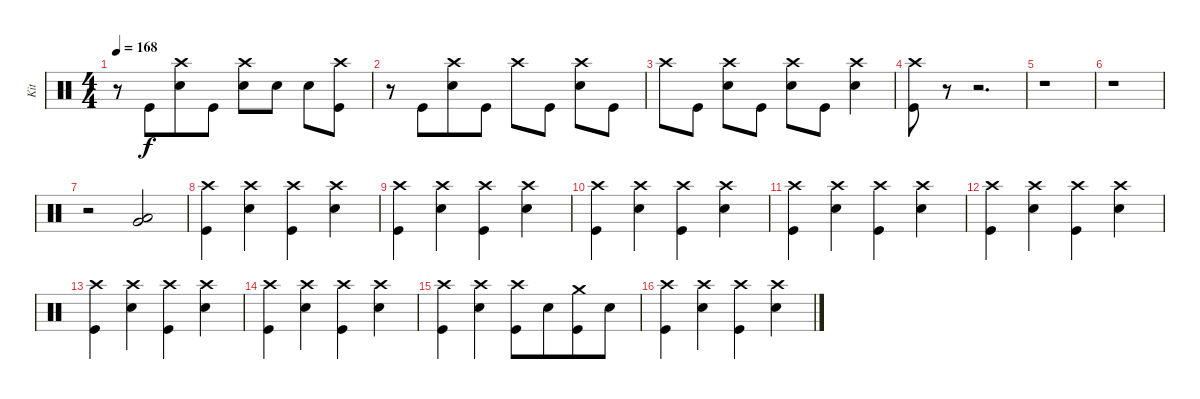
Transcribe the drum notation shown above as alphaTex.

\track ("Kit" "Kit") {instrument percussion}
\staff {score}
\articulation defaults
\ts (4 4)
\tempo 168
\clef neutral
\ks c
r.8{dy f} "Kick (hit)".8{beam merge} ("Crash high (hit)" "Electric Snare (hit)").8{beam merge} "Kick (hit)".8 ("Crash high (hit)" "Electric Snare (hit)").8 "Electric Snare (hit)".8 "Electric Snare (hit)".8 ("Crash high (hit)" "Kick (hit)").8 |
r.8{beam merge} "Kick (hit)".8{beam merge} ("Crash high (hit)" "Electric Snare (hit)").8 "Kick (hit)".8 "Crash high (hit)".8{beam merge} "Kick (hit)".8 ("Crash high (hit)" "Electric Snare (hit)").8{beam merge} "Kick (hit)".8 |
"Crash high (hit)".8 "Kick (hit)".8 ("Crash high (hit)" "Electric Snare (hit)").8 "Kick (hit)".8 ("Crash high (hit)" "Electric Snare (hit)").8 "Kick (hit)".8 ("Crash high (hit)" "Electric Snare (hit)").4 |
("Crash high (hit)" "Kick (hit)").8 r.8 r.2{d} |
r.1 |
r.1 |
r.2 ("Very Low Tom (hit)" "Low Floor Tom (hit)").2 |
("Crash high (hit)" "Kick (hit)").4 ("Crash high (hit)" "Electric Snare (hit)").4{beam merge} ("Crash high (hit)" "Kick (hit)").4 ("Crash high (hit)" "Electric Snare (hit)").4 |
("Crash high (hit)" "Kick (hit)").4 ("Crash high (hit)" "Electric Snare (hit)").4{beam merge} ("Crash high (hit)" "Kick (hit)").4 ("Crash high (hit)" "Electric Snare (hit)").4 |
("Crash high (hit)" "Kick (hit)").4 ("Crash high (hit)" "Electric Snare (hit)").4{beam merge} ("Crash high (hit)" "Kick (hit)").4 ("Crash high (hit)" "Electric Snare (hit)").4 |
("Crash high (hit)" "Kick (hit)").4 ("Crash high (hit)" "Electric Snare (hit)").4{beam merge} ("Crash high (hit)" "Kick (hit)").4 ("Crash high (hit)" "Electric Snare (hit)").4 |
("Crash high (hit)" "Kick (hit)").4 ("Crash high (hit)" "Electric Snare (hit)").4{beam merge} ("Crash high (hit)" "Kick (hit)").4 ("Crash high (hit)" "Electric Snare (hit)").4 |
("Crash high (hit)" "Kick (hit)").4 ("Crash high (hit)" "Electric Snare (hit)").4{beam merge} ("Crash high (hit)" "Kick (hit)").4 ("Crash high (hit)" "Electric Snare (hit)").4 |
("Crash high (hit)" "Kick (hit)").4 ("Crash high (hit)" "Electric Snare (hit)").4{beam merge} ("Crash high (hit)" "Kick (hit)").4 ("Crash high (hit)" "Electric Snare (hit)").4 |
("Crash high (hit)" "Kick (hit)").4 ("Crash high (hit)" "Electric Snare (hit)").4{beam merge} ("Crash high (hit)" "Kick (hit)").8 "Electric Snare (hit)".8{beam merge} ("Crash medium (hit)" "Kick (hit)").8 "Electric Snare (hit)".8 |
("Crash high (hit)" "Kick (hit)").4 ("Crash high (hit)" "Electric Snare (hit)").4{beam merge} ("Crash high (hit)" "Kick (hit)").4 ("Crash high (hit)" "Electric Snare (hit)").4
